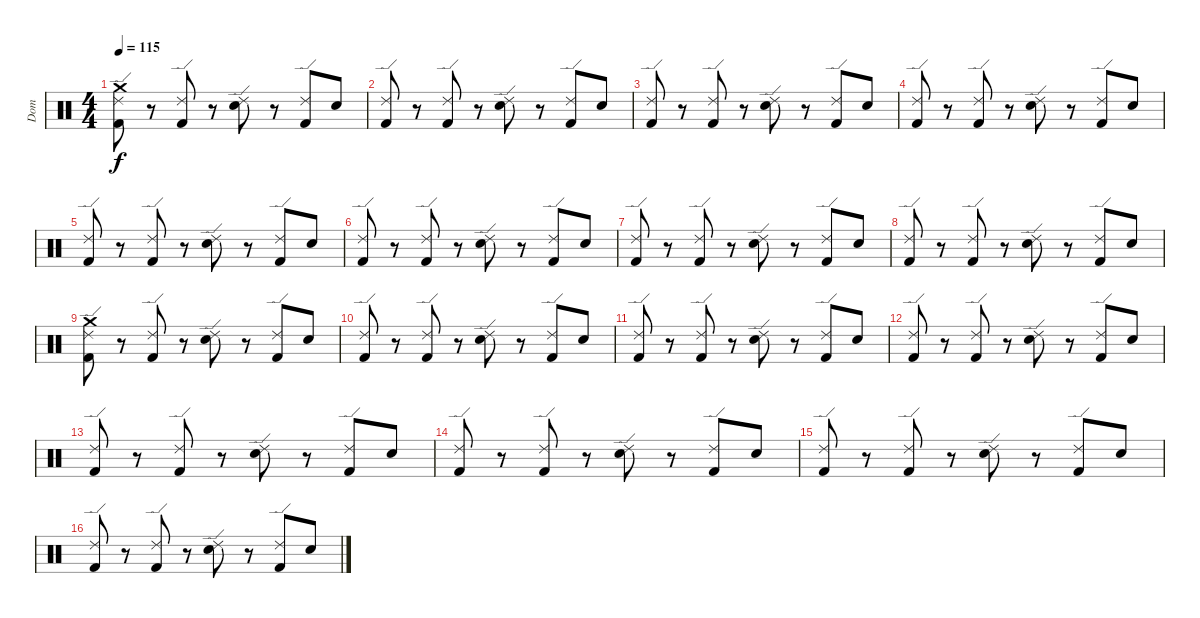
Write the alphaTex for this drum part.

\track ("Dom" "Dom") {instrument percussion}
\staff {score}
\articulation defaults
\ts (4 4)
\tempo 115
\clef neutral
\ks c
("Crash medium (hit)" "Ride (edge) 2" "Kick (hit) 2").8{dy f} r.8 ("Ride (edge) 2" "Kick (hit) 2").8 r.8 ("Ride (edge) 2" "Snare (hit) 2").8 r.8 ("Ride (edge) 2" "Kick (hit) 2").8 "Snare (hit) 2".8 |
("Ride (edge) 2" "Kick (hit) 2").8 r.8 ("Ride (edge) 2" "Kick (hit) 2").8 r.8 ("Ride (edge) 2" "Snare (hit) 2").8 r.8 ("Ride (edge) 2" "Kick (hit) 2").8 "Snare (hit) 2".8 |
("Ride (edge) 2" "Kick (hit) 2").8 r.8 ("Ride (edge) 2" "Kick (hit) 2").8 r.8 ("Ride (edge) 2" "Snare (hit) 2").8 r.8 ("Ride (edge) 2" "Kick (hit) 2").8 "Snare (hit) 2".8 |
("Ride (edge) 2" "Kick (hit) 2").8 r.8 ("Ride (edge) 2" "Kick (hit) 2").8 r.8 ("Ride (edge) 2" "Snare (hit) 2").8 r.8 ("Ride (edge) 2" "Kick (hit) 2").8 "Snare (hit) 2".8 |
("Ride (edge) 2" "Kick (hit) 2").8 r.8 ("Ride (edge) 2" "Kick (hit) 2").8 r.8 ("Ride (edge) 2" "Snare (hit) 2").8 r.8 ("Ride (edge) 2" "Kick (hit) 2").8 "Snare (hit) 2".8 |
("Ride (edge) 2" "Kick (hit) 2").8 r.8 ("Ride (edge) 2" "Kick (hit) 2").8 r.8 ("Ride (edge) 2" "Snare (hit) 2").8 r.8 ("Ride (edge) 2" "Kick (hit) 2").8 "Snare (hit) 2".8 |
("Ride (edge) 2" "Kick (hit) 2").8 r.8 ("Ride (edge) 2" "Kick (hit) 2").8 r.8 ("Ride (edge) 2" "Snare (hit) 2").8 r.8 ("Ride (edge) 2" "Kick (hit) 2").8 "Snare (hit) 2".8 |
("Ride (edge) 2" "Kick (hit) 2").8 r.8 ("Ride (edge) 2" "Kick (hit) 2").8 r.8 ("Ride (edge) 2" "Snare (hit) 2").8 r.8 ("Ride (edge) 2" "Kick (hit) 2").8 "Snare (hit) 2".8 |
("Crash medium (hit)" "Ride (edge) 2" "Kick (hit) 2").8 r.8 ("Ride (edge) 2" "Kick (hit) 2").8 r.8 ("Ride (edge) 2" "Snare (hit) 2").8 r.8 ("Ride (edge) 2" "Kick (hit) 2").8 "Snare (hit) 2".8 |
("Ride (edge) 2" "Kick (hit) 2").8 r.8 ("Ride (edge) 2" "Kick (hit) 2").8 r.8 ("Ride (edge) 2" "Snare (hit) 2").8 r.8 ("Ride (edge) 2" "Kick (hit) 2").8 "Snare (hit) 2".8 |
("Ride (edge) 2" "Kick (hit) 2").8 r.8 ("Ride (edge) 2" "Kick (hit) 2").8 r.8 ("Ride (edge) 2" "Snare (hit) 2").8 r.8 ("Ride (edge) 2" "Kick (hit) 2").8 "Snare (hit) 2".8 |
("Ride (edge) 2" "Kick (hit) 2").8 r.8 ("Ride (edge) 2" "Kick (hit) 2").8 r.8 ("Ride (edge) 2" "Snare (hit) 2").8 r.8 ("Ride (edge) 2" "Kick (hit) 2").8 "Snare (hit) 2".8 |
("Ride (edge) 2" "Kick (hit) 2").8 r.8 ("Ride (edge) 2" "Kick (hit) 2").8 r.8 ("Ride (edge) 2" "Snare (hit) 2").8 r.8 ("Ride (edge) 2" "Kick (hit) 2").8 "Snare (hit) 2".8 |
("Ride (edge) 2" "Kick (hit) 2").8 r.8 ("Ride (edge) 2" "Kick (hit) 2").8 r.8 ("Ride (edge) 2" "Snare (hit) 2").8 r.8 ("Ride (edge) 2" "Kick (hit) 2").8 "Snare (hit) 2".8 |
("Ride (edge) 2" "Kick (hit) 2").8 r.8 ("Ride (edge) 2" "Kick (hit) 2").8 r.8 ("Ride (edge) 2" "Snare (hit) 2").8 r.8 ("Ride (edge) 2" "Kick (hit) 2").8 "Snare (hit) 2".8 |
("Ride (edge) 2" "Kick (hit) 2").8 r.8 ("Ride (edge) 2" "Kick (hit) 2").8 r.8 ("Ride (edge) 2" "Snare (hit) 2").8 r.8 ("Ride (edge) 2" "Kick (hit) 2").8 "Snare (hit) 2".8
